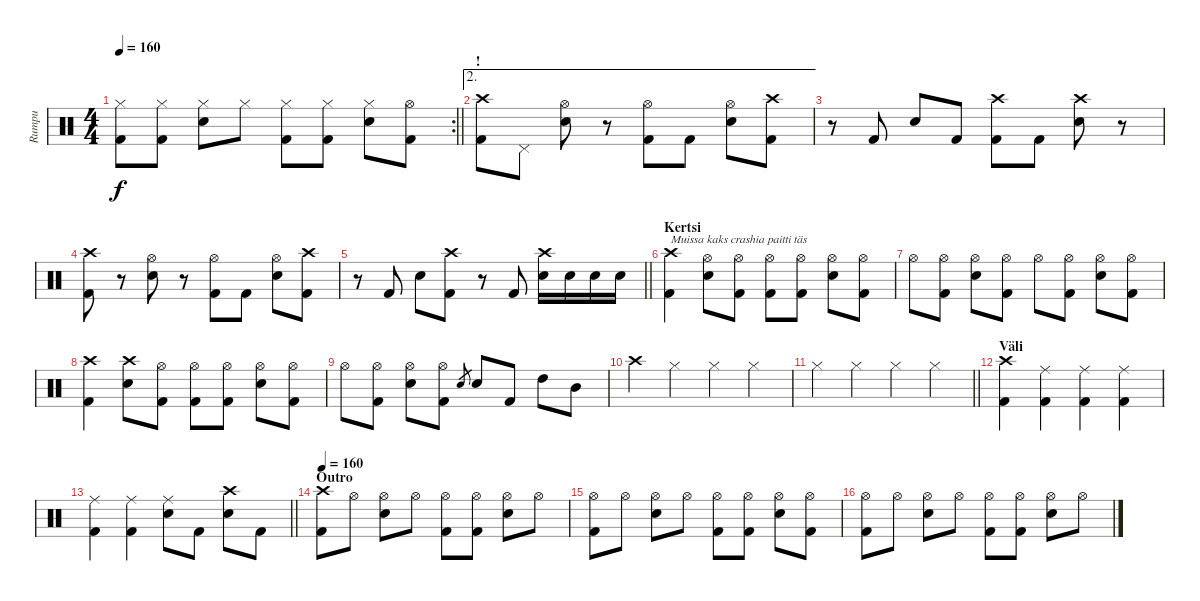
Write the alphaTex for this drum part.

\track ("Rumpu" "Rumpu") {instrument percussion}
\staff {score}
\articulation defaults
\rc 2
\ts (4 4)
\tempo 160
\clef neutral
\barLineRight lightlight
\ks c
("Hi-Hat (closed)" "Kick (hit) 2").8{dy f} ("Hi-Hat (closed)" "Kick (hit) 2").8 ("Hi-Hat (closed)" "Snare (hit) 2").8 "Hi-Hat (closed)".8 ("Hi-Hat (closed)" "Kick (hit) 2").8 ("Hi-Hat (closed)" "Kick (hit) 2").8 ("Hi-Hat (closed)" "Snare (hit) 2").8 ("Hi-Hat (open)" "Kick (hit) 2").8 |
\ae 2
\section ("" "!")
("Crash high (hit)" "Kick (hit) 2").8 "Pedal Hi-Hat (hit)".8 ("Hi-Hat (open)" "Snare (hit) 2").8 r.8 ("Hi-Hat (open)" "Kick (hit) 2").8 "Kick (hit) 2".8 ("Hi-Hat (open)" "Snare (hit) 2").8 ("Crash high (hit)" "Kick (hit) 2").8 |
r.8 "Kick (hit) 2".8 "Snare (hit) 2".8 "Kick (hit) 2".8 ("Crash high (hit)" "Kick (hit) 2").8 "Kick (hit) 2".8 ("Crash high (hit)" "Snare (hit) 2").8 r.8 |
("Crash high (hit)" "Kick (hit) 2").8 r.8 ("Hi-Hat (open)" "Snare (hit) 2").8 r.8 ("Hi-Hat (open)" "Kick (hit) 2").8 "Kick (hit) 2".8 ("Hi-Hat (open)" "Snare (hit) 2").8 ("Crash high (hit)" "Kick (hit) 2").8 |
\barLineRight lightlight
r.8 "Kick (hit) 2".8 "Snare (hit) 2".8 ("Crash high (hit)" "Kick (hit) 2").8 r.8 "Kick (hit) 2".8 ("Crash high (hit)" "Snare (hit) 2").16 "Snare (hit) 2".16 "Snare (hit) 2".16 "Snare (hit) 2".16 |
\section ("" "Kertsi")
("Crash high (hit)" "Kick (hit) 2").4{txt "Muissa kaks crashia paitti täs"} ("Hi-Hat (open)" "Snare (hit) 2").8 ("Hi-Hat (open)" "Kick (hit) 2").8 ("Hi-Hat (open)" "Kick (hit) 2").8 ("Hi-Hat (open)" "Kick (hit) 2").8 ("Hi-Hat (open)" "Snare (hit) 2").8 ("Hi-Hat (open)" "Kick (hit) 2").8 |
"Hi-Hat (open)".8 ("Hi-Hat (open)" "Kick (hit) 2").8 ("Hi-Hat (open)" "Snare (hit) 2").8 ("Hi-Hat (open)" "Kick (hit) 2").8 "Hi-Hat (open)".8 ("Hi-Hat (open)" "Kick (hit) 2").8 ("Hi-Hat (open)" "Snare (hit) 2").8 ("Hi-Hat (open)" "Kick (hit) 2").8 |
("Crash high (hit)" "Kick (hit) 2").4 ("Crash high (hit)" "Snare (hit) 2").8 ("Hi-Hat (open)" "Kick (hit) 2").8 ("Hi-Hat (open)" "Kick (hit) 2").8 ("Hi-Hat (open)" "Kick (hit) 2").8 ("Hi-Hat (open)" "Snare (hit) 2").8 ("Hi-Hat (open)" "Kick (hit) 2").8 |
"Hi-Hat (open)".8 ("Hi-Hat (open)" "Kick (hit) 2").8 ("Hi-Hat (open)" "Snare (hit) 2").8 ("Hi-Hat (open)" "Kick (hit) 2").8 "Snare (hit) 2"{sl}.8{gr} "Snare (hit) 2".8 "Kick (hit) 2".8 "High Tom (hit)".8 "Mid Tom (hit)".8 |
"Crash high (hit)".4 "Hi-Hat (closed)".4 "Hi-Hat (closed)".4 "Hi-Hat (closed)".4 |
\barLineRight lightlight "Hi-Hat (closed)".4 "Hi-Hat (closed)".4 "Hi-Hat (closed)".4 "Hi-Hat (closed)".4
|
\section ("" "Väli")
("Crash high (hit)" "Kick (hit) 2").4 ("Ride (middle)" "Kick (hit) 2").4 ("Ride (middle)" "Kick (hit) 2").4 ("Ride (middle)" "Kick (hit) 2").4 |
\barLineRight lightlight
("Ride (middle)" "Kick (hit) 2").4 ("Ride (middle)" "Kick (hit) 2").4 ("Ride (middle)" "Snare (hit) 2").8 "Kick (hit) 2".8 ("Crash high (hit)" "Snare (hit) 2").8 "Kick (hit) 2".8 |
\section ("" "Outro")
\tempo 160
("Crash high (hit)" "Kick (hit) 2").8 "Hi-Hat (open)".8 ("Hi-Hat (open)" "Snare (hit) 2").8 "Hi-Hat (open)".8 ("Hi-Hat (open)" "Kick (hit) 2").8 ("Hi-Hat (open)" "Kick (hit) 2").8 ("Hi-Hat (open)" "Snare (hit) 2").8 "Hi-Hat (open)".8 |
("Hi-Hat (open)" "Kick (hit) 2").8 "Hi-Hat (open)".8 ("Hi-Hat (open)" "Snare (hit) 2").8 "Hi-Hat (open)".8 ("Hi-Hat (open)" "Kick (hit) 2").8 ("Hi-Hat (open)" "Kick (hit) 2").8 ("Hi-Hat (open)" "Snare (hit) 2").8 ("Hi-Hat (open)" "Kick (hit) 2").8 |
("Hi-Hat (open)" "Kick (hit) 2").8 "Hi-Hat (open)".8 ("Hi-Hat (open)" "Snare (hit) 2").8 "Hi-Hat (open)".8 ("Hi-Hat (open)" "Kick (hit) 2").8 ("Hi-Hat (open)" "Kick (hit) 2").8 ("Hi-Hat (open)" "Snare (hit) 2").8 "Hi-Hat (open)".8
